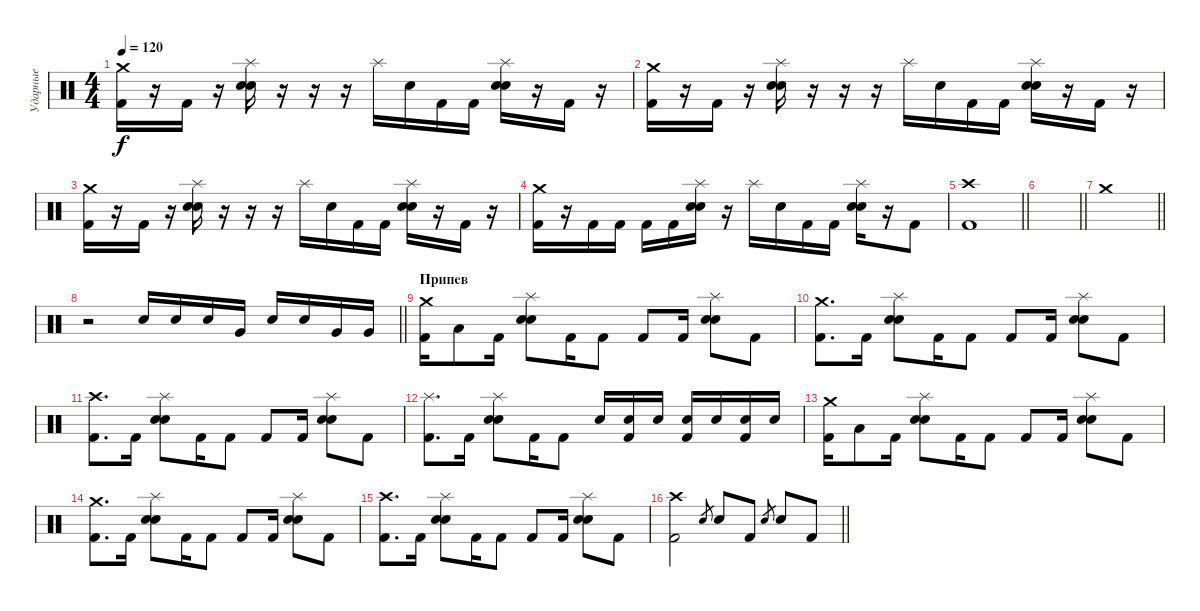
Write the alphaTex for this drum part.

\track ("Ударные" "Ударные") {instrument percussion}
\staff {score}
\articulation defaults
\ts (4 4)
\tempo 120
\clef neutral
\ks c
("Crash medium (hit)" "Kick (hit) 2").16{dy f} r.16 "Kick (hit) 2".16 r.16 ("Splash (hit)" "Electric Snare (hit)" "Snare (hit) 2").16 r.16 r.16 r.16 "Splash (hit)".16 "Electric Snare (hit)".16 "Kick (hit) 2".16 "Kick (hit) 2".16 ("Splash (hit)" "Electric Snare (hit)" "Snare (hit) 2").16 r.16 "Kick (hit) 2".16 r.16 |
("Crash medium (hit)" "Kick (hit) 2").16 r.16 "Kick (hit) 2".16 r.16 ("Splash (hit)" "Electric Snare (hit)" "Snare (hit) 2").16 r.16 r.16 r.16 "Splash (hit)".16 "Electric Snare (hit)".16 "Kick (hit) 2".16 "Kick (hit) 2".16 ("Splash (hit)" "Electric Snare (hit)" "Snare (hit) 2").16 r.16 "Kick (hit) 2".16 r.16 |
("Crash medium (hit)" "Kick (hit) 2").16 r.16 "Kick (hit) 2".16 r.16 ("Splash (hit)" "Electric Snare (hit)" "Snare (hit) 2").16 r.16 r.16 r.16 "Splash (hit)".16 "Electric Snare (hit)".16 "Kick (hit) 2".16 "Kick (hit) 2".16 ("Splash (hit)" "Electric Snare (hit)" "Snare (hit) 2").16 r.16 "Kick (hit) 2".16 r.16 |
("Crash medium (hit)" "Kick (hit) 2").16 r.16 "Kick (hit) 2".16 "Kick (hit) 2".16 "Kick (hit) 2".16 "Kick (hit) 2".16 ("Splash (hit)" "Electric Snare (hit)" "Snare (hit) 2").16 r.16 "Splash (hit)".16 "Electric Snare (hit)".16 "Kick (hit) 2".16 "Kick (hit) 2".16 ("Splash (hit)" "Electric Snare (hit)" "Snare (hit) 2").16 r.16 "Kick (hit) 2".8 |
\barLineRight lightlight
("Crash high (hit)" "Kick (hit) 2").1 |
\barLineRight lightlight
|
\barLineRight lightlight "Crash medium (hit)".1
|
\barLineRight lightlight
r.2 "Snare (hit) 2".16 "Electric Snare (hit)".16 "Snare (hit) 2".16 "Very Low Tom (hit)".16 "Electric Snare (hit)".16 "Electric Snare (hit)".16 "Very Low Tom (hit)".16 "Very Low Tom (hit)".16 |
\section ("" "Припев")
("Crash medium (hit)" "Kick (hit) 2").16 "Low Tom (hit)".8 "Kick (hit) 2".16 ("Splash (hit)" "Electric Snare (hit)" "Snare (hit) 2").8 "Kick (hit) 2".16 "Kick (hit) 2".8 "Kick (hit) 2".8 "Kick (hit) 2".16 ("Splash (hit)" "Electric Snare (hit)" "Snare (hit) 2").8 "Kick (hit) 2".8 |
("Crash medium (hit)" "Kick (hit) 2").8{d} "Kick (hit) 2".16 ("Splash (hit)" "Electric Snare (hit)" "Snare (hit) 2").8 "Kick (hit) 2".16 "Kick (hit) 2".8 "Kick (hit) 2".8 "Kick (hit) 2".16 ("Splash (hit)" "Electric Snare (hit)" "Snare (hit) 2").8 "Kick (hit) 2".8 |
("Crash high (hit)" "Kick (hit) 2").8{d} "Kick (hit) 2".16 ("Splash (hit)" "Electric Snare (hit)" "Snare (hit) 2").8 "Kick (hit) 2".16 "Kick (hit) 2".8 "Kick (hit) 2".8 "Kick (hit) 2".16 ("Splash (hit)" "Electric Snare (hit)" "Snare (hit) 2").8 "Kick (hit) 2".8 |
("Splash (hit)" "Kick (hit) 2").8{d} "Kick (hit) 2".16 ("Splash (hit)" "Electric Snare (hit)" "Snare (hit) 2").8 "Kick (hit) 2".16 "Kick (hit) 2".8 "Electric Snare (hit)".16 ("Electric Snare (hit)" "Kick (hit) 2").16 "Electric Snare (hit)".16 ("Electric Snare (hit)" "Kick (hit) 2").16 "Electric Snare (hit)".16 ("Electric Snare (hit)" "Kick (hit) 2").16 "Electric Snare (hit)".16 |
("Crash medium (hit)" "Kick (hit) 2").16 "Low Tom (hit)".8 "Kick (hit) 2".16 ("Splash (hit)" "Electric Snare (hit)" "Snare (hit) 2").8 "Kick (hit) 2".16 "Kick (hit) 2".8 "Kick (hit) 2".8 "Kick (hit) 2".16 ("Splash (hit)" "Electric Snare (hit)" "Snare (hit) 2").8 "Kick (hit) 2".8 |
("Crash medium (hit)" "Kick (hit) 2").8{d} "Kick (hit) 2".16 ("Splash (hit)" "Electric Snare (hit)" "Snare (hit) 2").8 "Kick (hit) 2".16 "Kick (hit) 2".8 "Kick (hit) 2".8 "Kick (hit) 2".16 ("Splash (hit)" "Electric Snare (hit)" "Snare (hit) 2").8 "Kick (hit) 2".8 |
("Crash high (hit)" "Kick (hit) 2").8{d} "Kick (hit) 2".16 ("Splash (hit)" "Electric Snare (hit)" "Snare (hit) 2").8 "Kick (hit) 2".16 "Kick (hit) 2".8 "Kick (hit) 2".8 "Kick (hit) 2".16 ("Splash (hit)" "Electric Snare (hit)" "Snare (hit) 2").8 "Kick (hit) 2".8 |
\barLineRight lightlight
("Crash high (hit)" "Kick (hit) 2").2 "Electric Snare (hit)".8{gr} "Electric Snare (hit)".8 "Kick (hit) 2".8 "Electric Snare (hit)".8{gr} "Electric Snare (hit)".8 "Kick (hit) 2".8
